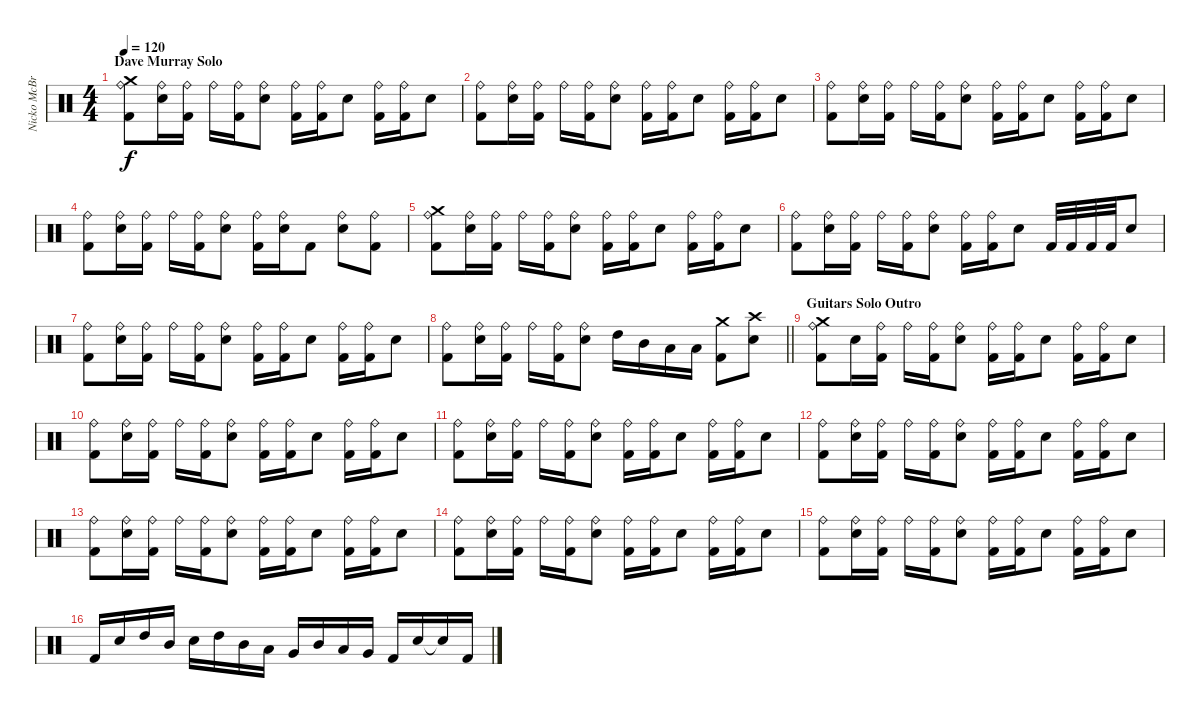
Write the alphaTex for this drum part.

\track ("Nicko McBrain" "Nicko McBr") {instrument percussion}
\staff {score}
\articulation defaults
\ts (4 4)
\section ("" "Dave Murray Solo")
\tempo 120
\clef neutral
\ks c
("Crash medium (hit)" "Kick (hit) 2" "Ride (bell)").8{dy f} ("Snare (hit) 2" "Ride (bell)").16 ("Kick (hit) 2" "Ride (bell)").16 "Ride (bell)".16 ("Kick (hit) 2" "Ride (bell)").16 ("Snare (hit) 2" "Ride (bell)").8 ("Kick (hit) 2" "Ride (bell)").16 ("Kick (hit) 2" "Ride (bell)").16 "Snare (hit) 2".8 ("Kick (hit) 2" "Ride (bell)").16 ("Kick (hit) 2" "Ride (bell)").16 "Snare (hit) 2".8 |
("Kick (hit) 2" "Ride (bell)").8 ("Snare (hit) 2" "Ride (bell)").16 ("Kick (hit) 2" "Ride (bell)").16 "Ride (bell)".16 ("Kick (hit) 2" "Ride (bell)").16 ("Snare (hit) 2" "Ride (bell)").8 ("Kick (hit) 2" "Ride (bell)").16 ("Kick (hit) 2" "Ride (bell)").16 "Snare (hit) 2".8 ("Kick (hit) 2" "Ride (bell)").16 ("Kick (hit) 2" "Ride (bell)").16 "Snare (hit) 2".8 |
("Kick (hit) 2" "Ride (bell)").8 ("Snare (hit) 2" "Ride (bell)").16 ("Kick (hit) 2" "Ride (bell)").16 "Ride (bell)".16 ("Kick (hit) 2" "Ride (bell)").16 ("Snare (hit) 2" "Ride (bell)").8 ("Kick (hit) 2" "Ride (bell)").16 ("Kick (hit) 2" "Ride (bell)").16 "Snare (hit) 2".8 ("Kick (hit) 2" "Ride (bell)").16 ("Kick (hit) 2" "Ride (bell)").16 "Snare (hit) 2".8 |
("Kick (hit) 2" "Ride (bell)").8 ("Snare (hit) 2" "Ride (bell)").16 ("Kick (hit) 2" "Ride (bell)").16 "Ride (bell)".16 ("Kick (hit) 2" "Ride (bell)").16 ("Snare (hit) 2" "Ride (bell)").8 ("Kick (hit) 2" "Ride (bell)").16 ("Snare (hit) 2" "Ride (bell)").16 "Kick (hit) 2".8 ("Snare (hit) 2" "Ride (bell)").8 ("Kick (hit) 2" "Ride (bell)").8 |
("Crash medium (hit)" "Kick (hit) 2" "Ride (bell)").8 ("Snare (hit) 2" "Ride (bell)").16 ("Kick (hit) 2" "Ride (bell)").16 "Ride (bell)".16 ("Kick (hit) 2" "Ride (bell)").16 ("Snare (hit) 2" "Ride (bell)").8 ("Kick (hit) 2" "Ride (bell)").16 ("Kick (hit) 2" "Ride (bell)").16 "Snare (hit) 2".8 ("Kick (hit) 2" "Ride (bell)").16 ("Kick (hit) 2" "Ride (bell)").16 "Snare (hit) 2".8 |
("Kick (hit) 2" "Ride (bell)").8 ("Snare (hit) 2" "Ride (bell)").16 ("Kick (hit) 2" "Ride (bell)").16 "Ride (bell)".16 ("Kick (hit) 2" "Ride (bell)").16 ("Snare (hit) 2" "Ride (bell)").8 ("Kick (hit) 2" "Ride (bell)").16 ("Kick (hit) 2" "Ride (bell)").16 "Snare (hit) 2".8 "Kick (hit) 2".32 "Kick (hit) 2".32 "Kick (hit) 2".32 "Kick (hit) 2".32 "Snare (hit) 2".8 |
("Kick (hit) 2" "Ride (bell)").8 ("Snare (hit) 2" "Ride (bell)").16 ("Kick (hit) 2" "Ride (bell)").16 "Ride (bell)".16 ("Kick (hit) 2" "Ride (bell)").16 ("Snare (hit) 2" "Ride (bell)").8 ("Kick (hit) 2" "Ride (bell)").16 ("Kick (hit) 2" "Ride (bell)").16 "Snare (hit) 2".8 ("Kick (hit) 2" "Ride (bell)").16 ("Kick (hit) 2" "Ride (bell)").16 "Snare (hit) 2".8 |
\barLineRight lightlight
("Kick (hit) 2" "Ride (bell)").8 ("Snare (hit) 2" "Ride (bell)").16 ("Kick (hit) 2" "Ride (bell)").16 "Ride (bell)".16 ("Kick (hit) 2" "Ride (bell)").16 ("Snare (hit) 2" "Ride (bell)").8 "High Tom (hit)".16 "Mid Tom (hit)".16 "Low Tom (hit)".16 "Low Tom (hit)".16 ("Crash medium (hit)" "Kick (hit) 2").8 ("Crash high (hit)" "Snare (hit) 2").8 |
\section ("" "Guitars Solo Outro")
("Crash medium (hit)" "Kick (hit) 2" "Ride (bell)").8 "Snare (hit) 2".16 ("Kick (hit) 2" "Ride (bell)").16 "Ride (bell)".16 ("Kick (hit) 2" "Ride (bell)").16 ("Snare (hit) 2" "Ride (bell)").8 ("Kick (hit) 2" "Ride (bell)").16 ("Kick (hit) 2" "Ride (bell)").16 "Snare (hit) 2".8 ("Kick (hit) 2" "Ride (bell)").16 ("Kick (hit) 2" "Ride (bell)").16 "Snare (hit) 2".8 |
("Kick (hit) 2" "Ride (bell)").8 ("Snare (hit) 2" "Ride (bell)").16 ("Kick (hit) 2" "Ride (bell)").16 "Ride (bell)".16 ("Kick (hit) 2" "Ride (bell)").16 ("Snare (hit) 2" "Ride (bell)").8 ("Kick (hit) 2" "Ride (bell)").16 ("Kick (hit) 2" "Ride (bell)").16 "Snare (hit) 2".8 ("Kick (hit) 2" "Ride (bell)").16 ("Kick (hit) 2" "Ride (bell)").16 "Snare (hit) 2".8 |
("Kick (hit) 2" "Ride (bell)").8 ("Snare (hit) 2" "Ride (bell)").16 ("Kick (hit) 2" "Ride (bell)").16 "Ride (bell)".16 ("Kick (hit) 2" "Ride (bell)").16 ("Snare (hit) 2" "Ride (bell)").8 ("Kick (hit) 2" "Ride (bell)").16 ("Kick (hit) 2" "Ride (bell)").16 "Snare (hit) 2".8 ("Kick (hit) 2" "Ride (bell)").16 ("Kick (hit) 2" "Ride (bell)").16 "Snare (hit) 2".8 |
("Kick (hit) 2" "Ride (bell)").8 ("Snare (hit) 2" "Ride (bell)").16 ("Kick (hit) 2" "Ride (bell)").16 "Ride (bell)".16 ("Kick (hit) 2" "Ride (bell)").16 ("Snare (hit) 2" "Ride (bell)").8 ("Kick (hit) 2" "Ride (bell)").16 ("Kick (hit) 2" "Ride (bell)").16 "Snare (hit) 2".8 ("Kick (hit) 2" "Ride (bell)").16 ("Kick (hit) 2" "Ride (bell)").16 "Snare (hit) 2".8 |
("Kick (hit) 2" "Ride (bell)").8 ("Snare (hit) 2" "Ride (bell)").16 ("Kick (hit) 2" "Ride (bell)").16 "Ride (bell)".16 ("Kick (hit) 2" "Ride (bell)").16 ("Snare (hit) 2" "Ride (bell)").8 ("Kick (hit) 2" "Ride (bell)").16 ("Kick (hit) 2" "Ride (bell)").16 "Snare (hit) 2".8 ("Kick (hit) 2" "Ride (bell)").16 ("Kick (hit) 2" "Ride (bell)").16 "Snare (hit) 2".8 |
("Kick (hit) 2" "Ride (bell)").8 ("Snare (hit) 2" "Ride (bell)").16 ("Kick (hit) 2" "Ride (bell)").16 "Ride (bell)".16 ("Kick (hit) 2" "Ride (bell)").16 ("Snare (hit) 2" "Ride (bell)").8 ("Kick (hit) 2" "Ride (bell)").16 ("Kick (hit) 2" "Ride (bell)").16 "Snare (hit) 2".8 ("Kick (hit) 2" "Ride (bell)").16 ("Kick (hit) 2" "Ride (bell)").16 "Snare (hit) 2".8 |
("Kick (hit) 2" "Ride (bell)").8 ("Snare (hit) 2" "Ride (bell)").16 ("Kick (hit) 2" "Ride (bell)").16 "Ride (bell)".16 ("Kick (hit) 2" "Ride (bell)").16 ("Snare (hit) 2" "Ride (bell)").8 ("Kick (hit) 2" "Ride (bell)").16 ("Kick (hit) 2" "Ride (bell)").16 "Snare (hit) 2".8 ("Kick (hit) 2" "Ride (bell)").16 ("Kick (hit) 2" "Ride (bell)").16 "Snare (hit) 2".8 |
"Kick (hit) 2".16 "Snare (hit) 2".16 "High Tom (hit)".16 "Mid Tom (hit)".16 "Snare (hit) 2".16 "High Tom (hit)".16 "Mid Tom (hit)".16 "Low Tom (hit)".16 "Very Low Tom (hit)".16 "Mid Tom (hit)".16 "Low Tom (hit)".16 "Very Low Tom (hit)".16 "Kick (hit) 2".16 "Snare (hit) 2".16 "Snare (hit)"{t}.16 "Kick (hit) 2".16
